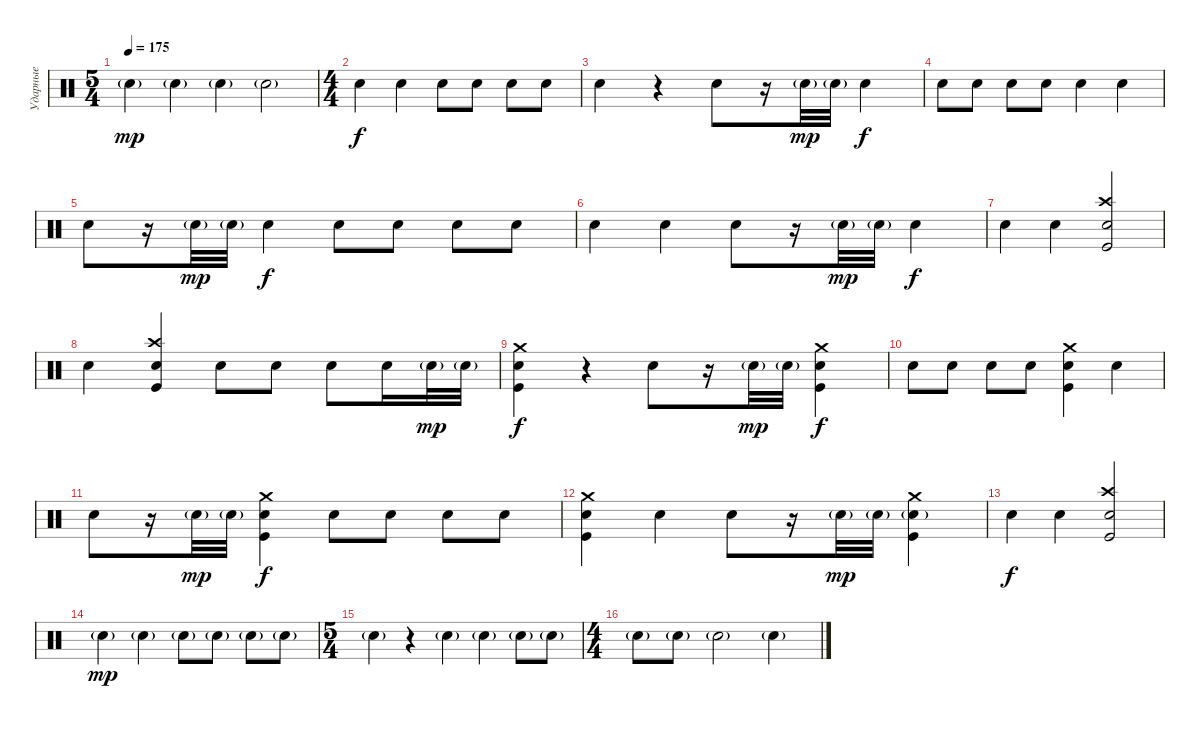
\track ("Ударные" "Ударные") {instrument percussion}
\staff {score}
\articulation defaults
\ts (5 4)
\tempo 175
\clef neutral
\ks c "Electric Snare (hit)"{g}.4{dy mp} "Electric Snare (hit)"{g}.4 "Electric Snare (hit)"{g}.4 "Electric Snare (hit)"{g}.2
|
\ts (4 4)
"Electric Snare (hit)".4{dy f} "Electric Snare (hit)".4 "Electric Snare (hit)".8 "Electric Snare (hit)".8 "Electric Snare (hit)".8 "Electric Snare (hit)".8 |
"Electric Snare (hit)".4 r.4 "Electric Snare (hit)".8 r.16 "Electric Snare (hit)"{g}.32{dy mp} "Electric Snare (hit)"{g}.32 "Electric Snare (hit)".4{dy f} |
"Electric Snare (hit)".8 "Electric Snare (hit)".8 "Electric Snare (hit)".8 "Electric Snare (hit)".8 "Electric Snare (hit)".4 "Electric Snare (hit)".4 |
"Electric Snare (hit)".8 r.16 "Electric Snare (hit)"{g}.32{dy mp} "Electric Snare (hit)"{g}.32 "Electric Snare (hit)".4{dy f} "Electric Snare (hit)".8 "Electric Snare (hit)".8 "Electric Snare (hit)".8 "Electric Snare (hit)".8 |
"Electric Snare (hit)".4 "Electric Snare (hit)".4 "Electric Snare (hit)".8 r.16 "Electric Snare (hit)"{g}.32{dy mp} "Electric Snare (hit)"{g}.32 "Electric Snare (hit)".4{dy f} |
"Electric Snare (hit)".4 "Electric Snare (hit)".4 ("Crash high (hit)" "Electric Snare (hit)" "Kick (hit)").2 |
"Electric Snare (hit)".4 ("Crash high (hit)" "Electric Snare (hit)" "Kick (hit)").4 "Electric Snare (hit)".8 "Electric Snare (hit)".8 "Electric Snare (hit)".8 "Electric Snare (hit)".16 "Electric Snare (hit)"{g}.32{dy mp} "Electric Snare (hit)"{g}.32 |
("Crash medium (hit)" "Electric Snare (hit)" "Kick (hit)").4{dy f} r.4 "Electric Snare (hit)".8 r.16 "Electric Snare (hit)"{g}.32{dy mp} "Electric Snare (hit)"{g}.32 ("Crash medium (hit)" "Electric Snare (hit)" "Kick (hit)").4{dy f} |
"Electric Snare (hit)".8 "Electric Snare (hit)".8 "Electric Snare (hit)".8 "Electric Snare (hit)".8 ("Crash medium (hit)" "Electric Snare (hit)" "Kick (hit)").4 "Electric Snare (hit)".4 |
"Electric Snare (hit)".8 r.16 "Electric Snare (hit)"{g}.32{dy mp} "Electric Snare (hit)"{g}.32 ("Crash medium (hit)" "Electric Snare (hit)" "Kick (hit)").4{dy f} "Electric Snare (hit)".8 "Electric Snare (hit)".8 "Electric Snare (hit)".8 "Electric Snare (hit)".8 |
("Crash medium (hit)" "Electric Snare (hit)" "Kick (hit)").4 "Electric Snare (hit)".4 "Electric Snare (hit)".8 r.16 "Electric Snare (hit)"{g}.32{dy mp} "Electric Snare (hit)"{g}.32 ("Crash medium (hit)" "Electric Snare (hit)"{g} "Kick (hit)").4 |
"Electric Snare (hit)".4{dy f} "Electric Snare (hit)".4 ("Crash high (hit)" "Electric Snare (hit)" "Kick (hit)").2 |
"Snare (hit) 2"{g}.4{dy mp} "Snare (hit) 2"{g}.4 "Snare (hit) 2"{g}.8 "Snare (hit) 2"{g}.8 "Snare (hit) 2"{g}.8 "Snare (hit) 2"{g}.8 |
\ts (5 4)
"Snare (hit) 2"{g}.4 r.4 "Snare (hit) 2"{g}.4 "Snare (hit) 2"{g}.4 "Snare (hit) 2"{g}.8 "Snare (hit) 2"{g}.8 |
\ts (4 4)
"Snare (hit) 2"{g}.8 "Snare (hit) 2"{g}.8 "Snare (hit) 2"{g}.2 "Snare (hit) 2"{g}.4
